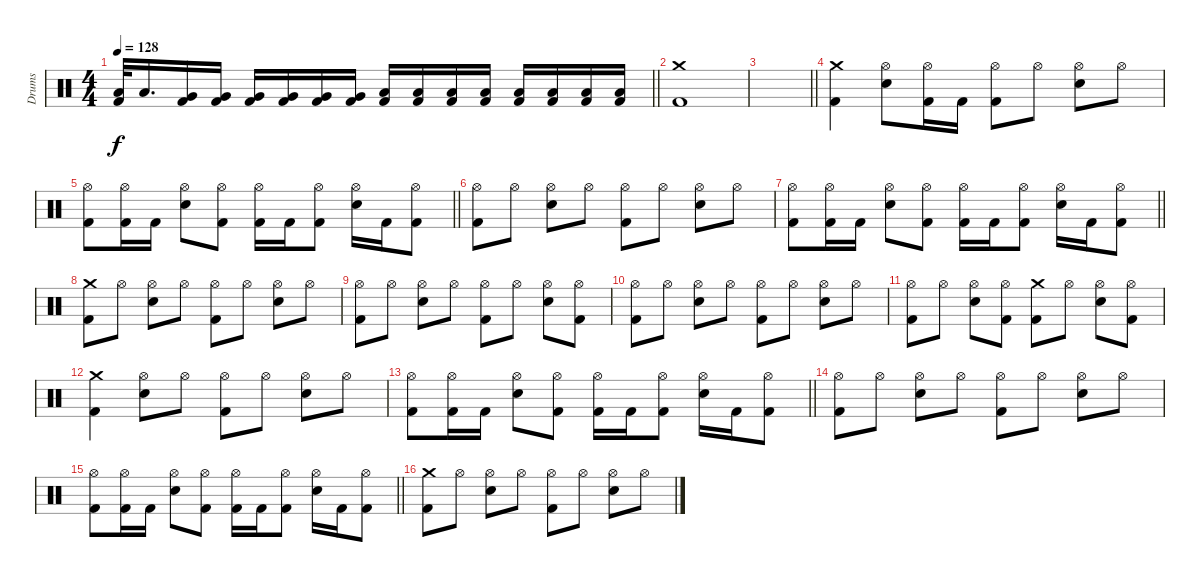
\track ("Drums" "Drums") {instrument percussion}
\staff {score}
\articulation defaults
\ts (4 4)
\tempo 128
\clef neutral
\barLineRight lightlight
\ks c
("Low Tom (hit)" "Kick (hit) 2").32{dy f} "Low Tom (hit)".16{d} ("Very Low Tom (hit)" "Kick (hit) 2").16 ("Very Low Tom (hit)" "Kick (hit) 2").16 ("Very Low Tom (hit)" "Kick (hit) 2").16 ("Very Low Tom (hit)" "Kick (hit) 2").16 ("Very Low Tom (hit)" "Kick (hit) 2").16 ("Very Low Tom (hit)" "Kick (hit) 2").16 ("Low Floor Tom (hit)" "Kick (hit) 2").16 ("Low Floor Tom (hit)" "Kick (hit) 2").16 ("Low Floor Tom (hit)" "Kick (hit) 2").16 ("Low Floor Tom (hit)" "Kick (hit) 2").16 ("Low Floor Tom (hit)" "Kick (hit) 2").16 ("Low Floor Tom (hit)" "Kick (hit) 2").16 ("Low Floor Tom (hit)" "Kick (hit) 2").16 ("Low Floor Tom (hit)" "Kick (hit) 2").16 |
("Crash medium (hit)" "Kick (hit) 2").1 |
\barLineRight lightlight
|
("Crash medium (hit)" "Kick (hit) 2").4 ("Hi-Hat (open)" "Electric Snare (hit)").8 ("Hi-Hat (open)" "Kick (hit) 2").16 "Kick (hit) 2".16 ("Hi-Hat (open)" "Kick (hit) 2").8 "Hi-Hat (open)".8 ("Hi-Hat (open)" "Electric Snare (hit)").8 "Hi-Hat (open)".8 |
\barLineRight lightlight
("Hi-Hat (open)" "Kick (hit) 2").8 ("Hi-Hat (open)" "Kick (hit) 2").16 "Kick (hit) 2".16 ("Hi-Hat (open)" "Electric Snare (hit)").8 ("Hi-Hat (open)" "Kick (hit) 2").8 ("Hi-Hat (open)" "Kick (hit) 2").16 "Kick (hit) 2".16 ("Hi-Hat (open)" "Kick (hit) 2").8 ("Hi-Hat (open)" "Electric Snare (hit)").16 "Kick (hit) 2".16 ("Hi-Hat (open)" "Kick (hit) 2").8 |
("Hi-Hat (open)" "Kick (hit) 2").8 "Hi-Hat (open)".8 ("Hi-Hat (open)" "Electric Snare (hit)").8 "Hi-Hat (open)".8 ("Hi-Hat (open)" "Kick (hit) 2").8 "Hi-Hat (open)".8 ("Hi-Hat (open)" "Electric Snare (hit)").8 "Hi-Hat (open)".8 |
\barLineRight lightlight
("Hi-Hat (open)" "Kick (hit) 2").8 ("Hi-Hat (open)" "Kick (hit) 2").16 "Kick (hit) 2".16 ("Hi-Hat (open)" "Electric Snare (hit)").8 ("Hi-Hat (open)" "Kick (hit) 2").8 ("Hi-Hat (open)" "Kick (hit) 2").16 "Kick (hit) 2".16 ("Hi-Hat (open)" "Kick (hit) 2").8 ("Hi-Hat (open)" "Electric Snare (hit)").16 "Kick (hit) 2".16 ("Hi-Hat (open)" "Kick (hit) 2").8 |
("Crash medium (hit)" "Kick (hit) 2").8 "Hi-Hat (open)".8 ("Hi-Hat (open)" "Electric Snare (hit)").8 "Hi-Hat (open)".8 ("Hi-Hat (open)" "Kick (hit) 2").8 "Hi-Hat (open)".8 ("Hi-Hat (open)" "Electric Snare (hit)").8 "Hi-Hat (open)".8 |
("Hi-Hat (open)" "Kick (hit) 2").8 "Hi-Hat (open)".8 ("Hi-Hat (open)" "Electric Snare (hit)").8 "Hi-Hat (open)".8 ("Hi-Hat (open)" "Kick (hit) 2").8 "Hi-Hat (open)".8 ("Hi-Hat (open)" "Electric Snare (hit)").8 ("Hi-Hat (open)" "Kick (hit) 2").8 |
("Hi-Hat (open)" "Kick (hit) 2").8 "Hi-Hat (open)".8 ("Hi-Hat (open)" "Electric Snare (hit)").8 "Hi-Hat (open)".8 ("Hi-Hat (open)" "Kick (hit) 2").8 "Hi-Hat (open)".8 ("Hi-Hat (open)" "Electric Snare (hit)").8 "Hi-Hat (open)".8 |
("Hi-Hat (open)" "Kick (hit) 2").8 "Hi-Hat (open)".8 ("Hi-Hat (open)" "Electric Snare (hit)").8 ("Hi-Hat (open)" "Kick (hit) 2").8 ("Crash medium (hit)" "Kick (hit) 2").8 "Hi-Hat (open)".8 ("Hi-Hat (open)" "Electric Snare (hit)").8 ("Hi-Hat (open)" "Kick (hit) 2").8 |
("Crash medium (hit)" "Kick (hit) 2").4 ("Hi-Hat (open)" "Electric Snare (hit)").8 "Hi-Hat (open)".8 ("Hi-Hat (open)" "Kick (hit) 2").8 "Hi-Hat (open)".8 ("Hi-Hat (open)" "Electric Snare (hit)").8 "Hi-Hat (open)".8 |
\barLineRight lightlight
("Hi-Hat (open)" "Kick (hit) 2").8 ("Hi-Hat (open)" "Kick (hit) 2").16 "Kick (hit) 2".16 ("Hi-Hat (open)" "Electric Snare (hit)").8 ("Hi-Hat (open)" "Kick (hit) 2").8 ("Hi-Hat (open)" "Kick (hit) 2").16 "Kick (hit) 2".16 ("Hi-Hat (open)" "Kick (hit) 2").8 ("Hi-Hat (open)" "Electric Snare (hit)").16 "Kick (hit) 2".16 ("Hi-Hat (open)" "Kick (hit) 2").8 |
("Hi-Hat (open)" "Kick (hit) 2").8 "Hi-Hat (open)".8 ("Hi-Hat (open)" "Electric Snare (hit)").8 "Hi-Hat (open)".8 ("Hi-Hat (open)" "Kick (hit) 2").8 "Hi-Hat (open)".8 ("Hi-Hat (open)" "Electric Snare (hit)").8 "Hi-Hat (open)".8 |
\barLineRight lightlight
("Hi-Hat (open)" "Kick (hit) 2").8 ("Hi-Hat (open)" "Kick (hit) 2").16 "Kick (hit) 2".16 ("Hi-Hat (open)" "Electric Snare (hit)").8 ("Hi-Hat (open)" "Kick (hit) 2").8 ("Hi-Hat (open)" "Kick (hit) 2").16 "Kick (hit) 2".16 ("Hi-Hat (open)" "Kick (hit) 2").8 ("Hi-Hat (open)" "Electric Snare (hit)").16 "Kick (hit) 2".16 ("Hi-Hat (open)" "Kick (hit) 2").8 |
("Crash medium (hit)" "Kick (hit) 2").8 "Hi-Hat (open)".8 ("Hi-Hat (open)" "Electric Snare (hit)").8 "Hi-Hat (open)".8 ("Hi-Hat (open)" "Kick (hit) 2").8 "Hi-Hat (open)".8 ("Hi-Hat (open)" "Electric Snare (hit)").8 "Hi-Hat (open)".8
